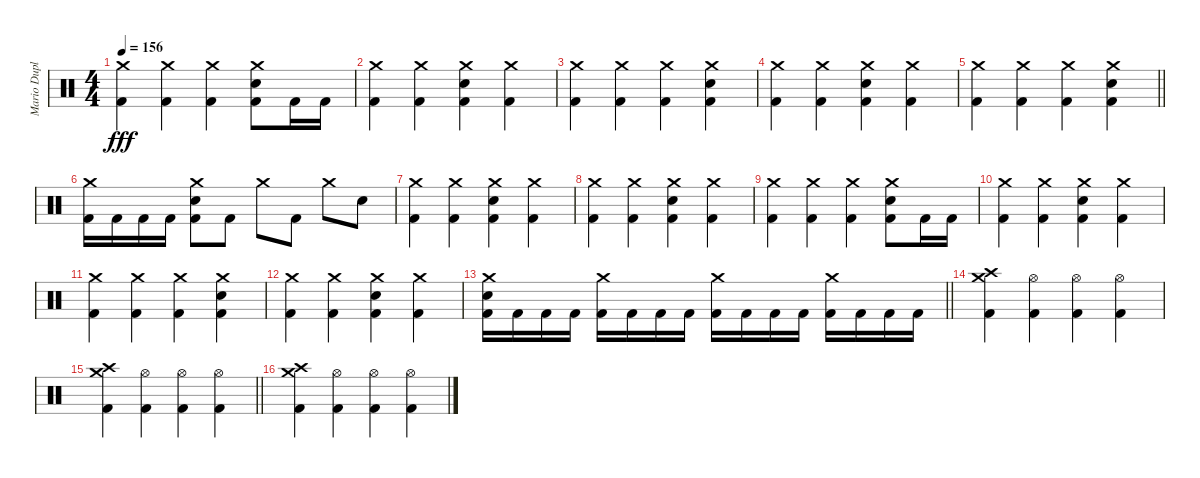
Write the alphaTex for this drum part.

\track ("Mario Duplantier" "Mario Dupl") {instrument percussion}
\staff {score}
\articulation defaults
\ts (4 4)
\tempo 156
\clef neutral
\ks c
("Crash medium (hit)" "Kick (hit) 2").4{dy fff} ("Crash medium (hit)" "Kick (hit) 2").4 ("Crash medium (hit)" "Kick (hit) 2").4 ("Crash medium (hit)" "Electric Snare (hit)" "Kick (hit) 2").8 "Kick (hit) 2".16 "Kick (hit) 2".16 |
("Crash medium (hit)" "Kick (hit) 2").4 ("Crash medium (hit)" "Kick (hit) 2").4 ("Crash medium (hit)" "Electric Snare (hit)" "Kick (hit) 2").4 ("Crash medium (hit)" "Kick (hit) 2").4 |
("Crash medium (hit)" "Kick (hit) 2").4 ("Crash medium (hit)" "Kick (hit) 2").4 ("Crash medium (hit)" "Kick (hit) 2").4 ("Crash medium (hit)" "Electric Snare (hit)" "Kick (hit) 2").4 |
("Crash medium (hit)" "Kick (hit) 2").4 ("Crash medium (hit)" "Kick (hit) 2").4 ("Crash medium (hit)" "Electric Snare (hit)" "Kick (hit) 2").4 ("Crash medium (hit)" "Kick (hit) 2").4 |
\barLineRight lightlight
("Crash medium (hit)" "Kick (hit) 2").4 ("Crash medium (hit)" "Kick (hit) 2").4 ("Crash medium (hit)" "Kick (hit) 2").4 ("Crash medium (hit)" "Electric Snare (hit)" "Kick (hit) 2").4 |
("Crash medium (hit)" "Kick (hit) 2").16 "Kick (hit) 2".16 "Kick (hit) 2".16 "Kick (hit) 2".16 ("Crash medium (hit)" "Electric Snare (hit)" "Kick (hit) 2").8 "Kick (hit) 2".8 "Crash medium (hit)".8 "Kick (hit) 2".8 "Crash medium (hit)".8 "Electric Snare (hit)".8 |
("Crash medium (hit)" "Kick (hit) 2").4 ("Crash medium (hit)" "Kick (hit) 2").4 ("Crash medium (hit)" "Electric Snare (hit)" "Kick (hit) 2").4 ("Crash medium (hit)" "Kick (hit) 2").4 |
("Crash medium (hit)" "Kick (hit) 2").4 ("Crash medium (hit)" "Kick (hit) 2").4 ("Crash medium (hit)" "Electric Snare (hit)" "Kick (hit) 2").4 ("Crash medium (hit)" "Kick (hit) 2").4 |
("Crash medium (hit)" "Kick (hit) 2").4 ("Crash medium (hit)" "Kick (hit) 2").4 ("Crash medium (hit)" "Kick (hit) 2").4 ("Crash medium (hit)" "Electric Snare (hit)" "Kick (hit) 2").8 "Kick (hit) 2".16 "Kick (hit) 2".16 |
("Crash medium (hit)" "Kick (hit) 2").4 ("Crash medium (hit)" "Kick (hit) 2").4 ("Crash medium (hit)" "Electric Snare (hit)" "Kick (hit) 2").4 ("Crash medium (hit)" "Kick (hit) 2").4 |
("Crash medium (hit)" "Kick (hit) 2").4 ("Crash medium (hit)" "Kick (hit) 2").4 ("Crash medium (hit)" "Kick (hit) 2").4 ("Crash medium (hit)" "Electric Snare (hit)" "Kick (hit) 2").4 |
("Crash medium (hit)" "Kick (hit) 2").4 ("Crash medium (hit)" "Kick (hit) 2").4 ("Crash medium (hit)" "Electric Snare (hit)" "Kick (hit) 2").4 ("Crash medium (hit)" "Kick (hit) 2").4 |
\barLineRight lightlight
("Crash medium (hit)" "Electric Snare (hit)" "Kick (hit) 2").16 "Kick (hit) 2".16 "Kick (hit) 2".16 "Kick (hit) 2".16 ("Crash medium (hit)" "Kick (hit) 2").16 "Kick (hit) 2".16 "Kick (hit) 2".16 "Kick (hit) 2".16 ("Crash medium (hit)" "Kick (hit) 2").16 "Kick (hit) 2".16 "Kick (hit) 2".16 "Kick (hit) 2".16 ("Crash medium (hit)" "Kick (hit) 2").16 "Kick (hit) 2".16 "Kick (hit) 2".16 "Kick (hit) 2".16 |
("Crash medium (hit)" "Crash high (hit)" "Kick (hit) 2").4 ("Hi-Hat (open)" "Kick (hit) 2").4 ("Hi-Hat (open)" "Kick (hit) 2").4 ("Hi-Hat (open)" "Kick (hit) 2").4 |
\barLineRight lightlight
("Crash medium (hit)" "Crash high (hit)" "Kick (hit) 2").4 ("Hi-Hat (open)" "Kick (hit) 2").4 ("Hi-Hat (open)" "Kick (hit) 2").4 ("Hi-Hat (open)" "Kick (hit) 2").4 |
("Crash medium (hit)" "Crash high (hit)" "Kick (hit) 2").4 ("Hi-Hat (open)" "Kick (hit) 2").4 ("Hi-Hat (open)" "Kick (hit) 2").4 ("Hi-Hat (open)" "Kick (hit) 2").4
